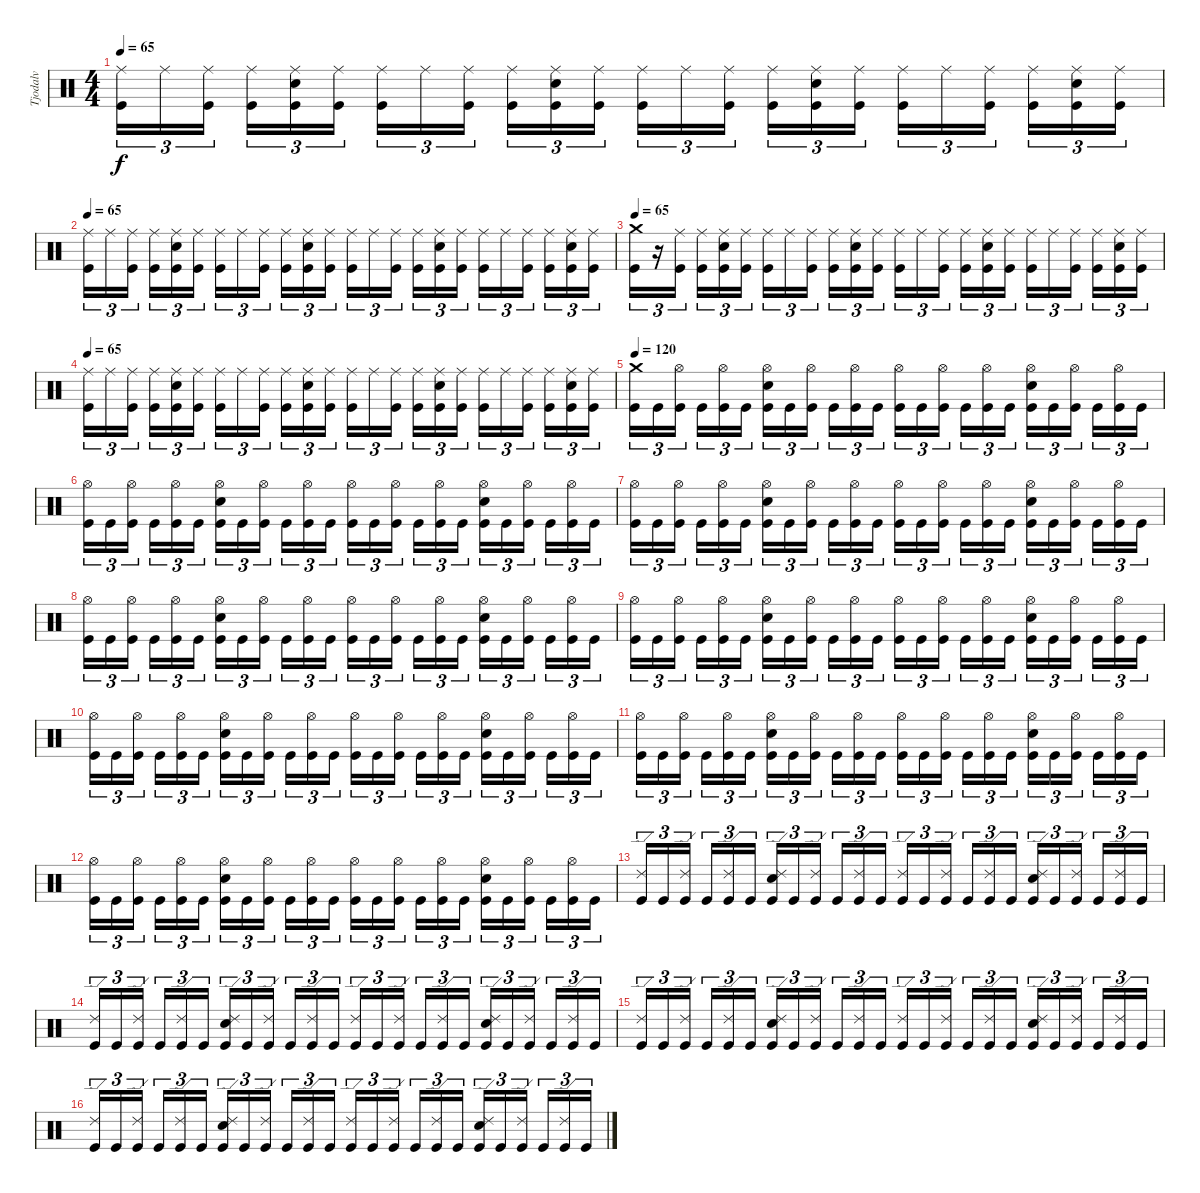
\track ("Tjodalv" "Tjodalv") {instrument percussion}
\staff {score}
\articulation defaults
\ts (4 4)
\tempo 65
\clef neutral
\ks c
("Ride (middle)" "Kick (hit)").16{tu (3 2) dy f} "Ride (middle)".16{tu (3 2)} ("Ride (middle)" "Kick (hit)").16{tu (3 2)} ("Ride (middle)" "Kick (hit)").16{tu (3 2)} ("Ride (middle)" "Snare (hit) 2" "Kick (hit)").16{tu (3 2)} ("Ride (middle)" "Kick (hit)").16{tu (3 2)} ("Ride (middle)" "Kick (hit)").16{tu (3 2)} "Ride (middle)".16{tu (3 2)} ("Ride (middle)" "Kick (hit)").16{tu (3 2)} ("Ride (middle)" "Kick (hit)").16{tu (3 2)} ("Ride (middle)" "Snare (hit) 2" "Kick (hit)").16{tu (3 2)} ("Ride (middle)" "Kick (hit)").16{tu (3 2)} ("Ride (middle)" "Kick (hit)").16{tu (3 2)} "Ride (middle)".16{tu (3 2)} ("Ride (middle)" "Kick (hit)").16{tu (3 2)} ("Ride (middle)" "Kick (hit)").16{tu (3 2)} ("Ride (middle)" "Snare (hit) 2" "Kick (hit)").16{tu (3 2)} ("Ride (middle)" "Kick (hit)").16{tu (3 2)} ("Ride (middle)" "Kick (hit)").16{tu (3 2)} "Ride (middle)".16{tu (3 2)} ("Ride (middle)" "Kick (hit)").16{tu (3 2)} ("Ride (middle)" "Kick (hit)").16{tu (3 2)} ("Ride (middle)" "Snare (hit) 2" "Kick (hit)").16{tu (3 2)} ("Ride (middle)" "Kick (hit)").16{tu (3 2)} |
\tempo 65
("Ride (middle)" "Kick (hit)").16{tu (3 2)} "Ride (middle)".16{tu (3 2)} ("Ride (middle)" "Kick (hit)").16{tu (3 2)} ("Ride (middle)" "Kick (hit)").16{tu (3 2)} ("Ride (middle)" "Snare (hit) 2" "Kick (hit)").16{tu (3 2)} ("Ride (middle)" "Kick (hit)").16{tu (3 2)} ("Ride (middle)" "Kick (hit)").16{tu (3 2)} "Ride (middle)".16{tu (3 2)} ("Ride (middle)" "Kick (hit)").16{tu (3 2)} ("Ride (middle)" "Kick (hit)").16{tu (3 2)} ("Ride (middle)" "Snare (hit) 2" "Kick (hit)").16{tu (3 2)} ("Ride (middle)" "Kick (hit)").16{tu (3 2)} ("Ride (middle)" "Kick (hit)").16{tu (3 2)} "Ride (middle)".16{tu (3 2)} ("Ride (middle)" "Kick (hit)").16{tu (3 2)} ("Ride (middle)" "Kick (hit)").16{tu (3 2)} ("Ride (middle)" "Snare (hit) 2" "Kick (hit)").16{tu (3 2)} ("Ride (middle)" "Kick (hit)").16{tu (3 2)} ("Ride (middle)" "Kick (hit)").16{tu (3 2)} "Ride (middle)".16{tu (3 2)} ("Ride (middle)" "Kick (hit)").16{tu (3 2)} ("Ride (middle)" "Kick (hit)").16{tu (3 2)} ("Ride (middle)" "Snare (hit) 2" "Kick (hit)").16{tu (3 2)} ("Ride (middle)" "Kick (hit)").16{tu (3 2)} |
\tempo 65
("Crash medium (hit)" "Kick (hit)").16{tu (3 2)} r.16{tu (3 2)} ("Ride (middle)" "Kick (hit)").16{tu (3 2)} ("Ride (middle)" "Kick (hit)").16{tu (3 2)} ("Ride (middle)" "Snare (hit) 2" "Kick (hit)").16{tu (3 2)} ("Ride (middle)" "Kick (hit)").16{tu (3 2)} ("Ride (middle)" "Kick (hit)").16{tu (3 2)} "Ride (middle)".16{tu (3 2)} ("Ride (middle)" "Kick (hit)").16{tu (3 2)} ("Ride (middle)" "Kick (hit)").16{tu (3 2)} ("Ride (middle)" "Snare (hit) 2" "Kick (hit)").16{tu (3 2)} ("Ride (middle)" "Kick (hit)").16{tu (3 2)} ("Ride (middle)" "Kick (hit)").16{tu (3 2)} "Ride (middle)".16{tu (3 2)} ("Ride (middle)" "Kick (hit)").16{tu (3 2)} ("Ride (middle)" "Kick (hit)").16{tu (3 2)} ("Ride (middle)" "Snare (hit) 2" "Kick (hit)").16{tu (3 2)} ("Ride (middle)" "Kick (hit)").16{tu (3 2)} ("Ride (middle)" "Kick (hit)").16{tu (3 2)} "Ride (middle)".16{tu (3 2)} ("Ride (middle)" "Kick (hit)").16{tu (3 2)} ("Ride (middle)" "Kick (hit)").16{tu (3 2)} ("Ride (middle)" "Snare (hit) 2" "Kick (hit)").16{tu (3 2)} ("Ride (middle)" "Kick (hit)").16{tu (3 2)} |
\tempo 65
("Ride (middle)" "Kick (hit)").16{tu (3 2)} "Ride (middle)".16{tu (3 2)} ("Ride (middle)" "Kick (hit)").16{tu (3 2)} ("Ride (middle)" "Kick (hit)").16{tu (3 2)} ("Ride (middle)" "Snare (hit) 2" "Kick (hit)").16{tu (3 2)} ("Ride (middle)" "Kick (hit)").16{tu (3 2)} ("Ride (middle)" "Kick (hit)").16{tu (3 2)} "Ride (middle)".16{tu (3 2)} ("Ride (middle)" "Kick (hit)").16{tu (3 2)} ("Ride (middle)" "Kick (hit)").16{tu (3 2)} ("Ride (middle)" "Snare (hit) 2" "Kick (hit)").16{tu (3 2)} ("Ride (middle)" "Kick (hit)").16{tu (3 2)} ("Ride (middle)" "Kick (hit)").16{tu (3 2)} "Ride (middle)".16{tu (3 2)} ("Ride (middle)" "Kick (hit)").16{tu (3 2)} ("Ride (middle)" "Kick (hit)").16{tu (3 2)} ("Ride (middle)" "Snare (hit) 2" "Kick (hit)").16{tu (3 2)} ("Ride (middle)" "Kick (hit)").16{tu (3 2)} ("Ride (middle)" "Kick (hit)").16{tu (3 2)} "Ride (middle)".16{tu (3 2)} ("Ride (middle)" "Kick (hit)").16{tu (3 2)} ("Ride (middle)" "Kick (hit)").16{tu (3 2)} ("Ride (middle)" "Snare (hit) 2" "Kick (hit)").16{tu (3 2)} ("Ride (middle)" "Kick (hit)").16{tu (3 2)} |
\tempo 120
("Crash medium (hit)" "Kick (hit)").16{tu (3 2)} "Kick (hit)".16{tu (3 2)} ("Hi-Hat (open)" "Kick (hit)").16{tu (3 2)} "Kick (hit)".16{tu (3 2)} ("Hi-Hat (open)" "Kick (hit)").16{tu (3 2)} "Kick (hit)".16{tu (3 2)} ("Hi-Hat (open)" "Snare (hit) 2" "Kick (hit)").16{tu (3 2)} "Kick (hit)".16{tu (3 2)} ("Hi-Hat (open)" "Kick (hit)").16{tu (3 2)} "Kick (hit)".16{tu (3 2)} ("Hi-Hat (open)" "Kick (hit)").16{tu (3 2)} "Kick (hit)".16{tu (3 2)} ("Hi-Hat (open)" "Kick (hit)").16{tu (3 2)} "Kick (hit)".16{tu (3 2)} ("Hi-Hat (open)" "Kick (hit)").16{tu (3 2)} "Kick (hit)".16{tu (3 2)} ("Hi-Hat (open)" "Kick (hit)").16{tu (3 2)} "Kick (hit)".16{tu (3 2)} ("Hi-Hat (open)" "Snare (hit) 2" "Kick (hit)").16{tu (3 2)} "Kick (hit)".16{tu (3 2)} ("Hi-Hat (open)" "Kick (hit)").16{tu (3 2)} "Kick (hit)".16{tu (3 2)} ("Hi-Hat (open)" "Kick (hit)").16{tu (3 2)} "Kick (hit)".16{tu (3 2)} |
("Hi-Hat (open)" "Kick (hit)").16{tu (3 2)} "Kick (hit)".16{tu (3 2)} ("Hi-Hat (open)" "Kick (hit)").16{tu (3 2)} "Kick (hit)".16{tu (3 2)} ("Hi-Hat (open)" "Kick (hit)").16{tu (3 2)} "Kick (hit)".16{tu (3 2)} ("Hi-Hat (open)" "Snare (hit) 2" "Kick (hit)").16{tu (3 2)} "Kick (hit)".16{tu (3 2)} ("Hi-Hat (open)" "Kick (hit)").16{tu (3 2)} "Kick (hit)".16{tu (3 2)} ("Hi-Hat (open)" "Kick (hit)").16{tu (3 2)} "Kick (hit)".16{tu (3 2)} ("Hi-Hat (open)" "Kick (hit)").16{tu (3 2)} "Kick (hit)".16{tu (3 2)} ("Hi-Hat (open)" "Kick (hit)").16{tu (3 2)} "Kick (hit)".16{tu (3 2)} ("Hi-Hat (open)" "Kick (hit)").16{tu (3 2)} "Kick (hit)".16{tu (3 2)} ("Hi-Hat (open)" "Snare (hit) 2" "Kick (hit)").16{tu (3 2)} "Kick (hit)".16{tu (3 2)} ("Hi-Hat (open)" "Kick (hit)").16{tu (3 2)} "Kick (hit)".16{tu (3 2)} ("Hi-Hat (open)" "Kick (hit)").16{tu (3 2)} "Kick (hit)".16{tu (3 2)} |
("Hi-Hat (open)" "Kick (hit)").16{tu (3 2)} "Kick (hit)".16{tu (3 2)} ("Hi-Hat (open)" "Kick (hit)").16{tu (3 2)} "Kick (hit)".16{tu (3 2)} ("Hi-Hat (open)" "Kick (hit)").16{tu (3 2)} "Kick (hit)".16{tu (3 2)} ("Hi-Hat (open)" "Snare (hit) 2" "Kick (hit)").16{tu (3 2)} "Kick (hit)".16{tu (3 2)} ("Hi-Hat (open)" "Kick (hit)").16{tu (3 2)} "Kick (hit)".16{tu (3 2)} ("Hi-Hat (open)" "Kick (hit)").16{tu (3 2)} "Kick (hit)".16{tu (3 2)} ("Hi-Hat (open)" "Kick (hit)").16{tu (3 2)} "Kick (hit)".16{tu (3 2)} ("Hi-Hat (open)" "Kick (hit)").16{tu (3 2)} "Kick (hit)".16{tu (3 2)} ("Hi-Hat (open)" "Kick (hit)").16{tu (3 2)} "Kick (hit)".16{tu (3 2)} ("Hi-Hat (open)" "Snare (hit) 2" "Kick (hit)").16{tu (3 2)} "Kick (hit)".16{tu (3 2)} ("Hi-Hat (open)" "Kick (hit)").16{tu (3 2)} "Kick (hit)".16{tu (3 2)} ("Hi-Hat (open)" "Kick (hit)").16{tu (3 2)} "Kick (hit)".16{tu (3 2)} |
("Hi-Hat (open)" "Kick (hit)").16{tu (3 2)} "Kick (hit)".16{tu (3 2)} ("Hi-Hat (open)" "Kick (hit)").16{tu (3 2)} "Kick (hit)".16{tu (3 2)} ("Hi-Hat (open)" "Kick (hit)").16{tu (3 2)} "Kick (hit)".16{tu (3 2)} ("Hi-Hat (open)" "Snare (hit) 2" "Kick (hit)").16{tu (3 2)} "Kick (hit)".16{tu (3 2)} ("Hi-Hat (open)" "Kick (hit)").16{tu (3 2)} "Kick (hit)".16{tu (3 2)} ("Hi-Hat (open)" "Kick (hit)").16{tu (3 2)} "Kick (hit)".16{tu (3 2)} ("Hi-Hat (open)" "Kick (hit)").16{tu (3 2)} "Kick (hit)".16{tu (3 2)} ("Hi-Hat (open)" "Kick (hit)").16{tu (3 2)} "Kick (hit)".16{tu (3 2)} ("Hi-Hat (open)" "Kick (hit)").16{tu (3 2)} "Kick (hit)".16{tu (3 2)} ("Hi-Hat (open)" "Snare (hit) 2" "Kick (hit)").16{tu (3 2)} "Kick (hit)".16{tu (3 2)} ("Hi-Hat (open)" "Kick (hit)").16{tu (3 2)} "Kick (hit)".16{tu (3 2)} ("Hi-Hat (open)" "Kick (hit)").16{tu (3 2)} "Kick (hit)".16{tu (3 2)} |
("Hi-Hat (open)" "Kick (hit)").16{tu (3 2)} "Kick (hit)".16{tu (3 2)} ("Hi-Hat (open)" "Kick (hit)").16{tu (3 2)} "Kick (hit)".16{tu (3 2)} ("Hi-Hat (open)" "Kick (hit)").16{tu (3 2)} "Kick (hit)".16{tu (3 2)} ("Hi-Hat (open)" "Snare (hit) 2" "Kick (hit)").16{tu (3 2)} "Kick (hit)".16{tu (3 2)} ("Hi-Hat (open)" "Kick (hit)").16{tu (3 2)} "Kick (hit)".16{tu (3 2)} ("Hi-Hat (open)" "Kick (hit)").16{tu (3 2)} "Kick (hit)".16{tu (3 2)} ("Hi-Hat (open)" "Kick (hit)").16{tu (3 2)} "Kick (hit)".16{tu (3 2)} ("Hi-Hat (open)" "Kick (hit)").16{tu (3 2)} "Kick (hit)".16{tu (3 2)} ("Hi-Hat (open)" "Kick (hit)").16{tu (3 2)} "Kick (hit)".16{tu (3 2)} ("Hi-Hat (open)" "Snare (hit) 2" "Kick (hit)").16{tu (3 2)} "Kick (hit)".16{tu (3 2)} ("Hi-Hat (open)" "Kick (hit)").16{tu (3 2)} "Kick (hit)".16{tu (3 2)} ("Hi-Hat (open)" "Kick (hit)").16{tu (3 2)} "Kick (hit)".16{tu (3 2)} |
("Hi-Hat (open)" "Kick (hit)").16{tu (3 2)} "Kick (hit)".16{tu (3 2)} ("Hi-Hat (open)" "Kick (hit)").16{tu (3 2)} "Kick (hit)".16{tu (3 2)} ("Hi-Hat (open)" "Kick (hit)").16{tu (3 2)} "Kick (hit)".16{tu (3 2)} ("Hi-Hat (open)" "Snare (hit) 2" "Kick (hit)").16{tu (3 2)} "Kick (hit)".16{tu (3 2)} ("Hi-Hat (open)" "Kick (hit)").16{tu (3 2)} "Kick (hit)".16{tu (3 2)} ("Hi-Hat (open)" "Kick (hit)").16{tu (3 2)} "Kick (hit)".16{tu (3 2)} ("Hi-Hat (open)" "Kick (hit)").16{tu (3 2)} "Kick (hit)".16{tu (3 2)} ("Hi-Hat (open)" "Kick (hit)").16{tu (3 2)} "Kick (hit)".16{tu (3 2)} ("Hi-Hat (open)" "Kick (hit)").16{tu (3 2)} "Kick (hit)".16{tu (3 2)} ("Hi-Hat (open)" "Snare (hit) 2" "Kick (hit)").16{tu (3 2)} "Kick (hit)".16{tu (3 2)} ("Hi-Hat (open)" "Kick (hit)").16{tu (3 2)} "Kick (hit)".16{tu (3 2)} ("Hi-Hat (open)" "Kick (hit)").16{tu (3 2)} "Kick (hit)".16{tu (3 2)} |
("Hi-Hat (open)" "Kick (hit)").16{tu (3 2)} "Kick (hit)".16{tu (3 2)} ("Hi-Hat (open)" "Kick (hit)").16{tu (3 2)} "Kick (hit)".16{tu (3 2)} ("Hi-Hat (open)" "Kick (hit)").16{tu (3 2)} "Kick (hit)".16{tu (3 2)} ("Hi-Hat (open)" "Snare (hit) 2" "Kick (hit)").16{tu (3 2)} "Kick (hit)".16{tu (3 2)} ("Hi-Hat (open)" "Kick (hit)").16{tu (3 2)} "Kick (hit)".16{tu (3 2)} ("Hi-Hat (open)" "Kick (hit)").16{tu (3 2)} "Kick (hit)".16{tu (3 2)} ("Hi-Hat (open)" "Kick (hit)").16{tu (3 2)} "Kick (hit)".16{tu (3 2)} ("Hi-Hat (open)" "Kick (hit)").16{tu (3 2)} "Kick (hit)".16{tu (3 2)} ("Hi-Hat (open)" "Kick (hit)").16{tu (3 2)} "Kick (hit)".16{tu (3 2)} ("Hi-Hat (open)" "Snare (hit) 2" "Kick (hit)").16{tu (3 2)} "Kick (hit)".16{tu (3 2)} ("Hi-Hat (open)" "Kick (hit)").16{tu (3 2)} "Kick (hit)".16{tu (3 2)} ("Hi-Hat (open)" "Kick (hit)").16{tu (3 2)} "Kick (hit)".16{tu (3 2)} |
("Hi-Hat (open)" "Kick (hit)").16{tu (3 2)} "Kick (hit)".16{tu (3 2)} ("Hi-Hat (open)" "Kick (hit)").16{tu (3 2)} "Kick (hit)".16{tu (3 2)} ("Hi-Hat (open)" "Kick (hit)").16{tu (3 2)} "Kick (hit)".16{tu (3 2)} ("Hi-Hat (open)" "Snare (hit) 2" "Kick (hit)").16{tu (3 2)} "Kick (hit)".16{tu (3 2)} ("Hi-Hat (open)" "Kick (hit)").16{tu (3 2)} "Kick (hit)".16{tu (3 2)} ("Hi-Hat (open)" "Kick (hit)").16{tu (3 2)} "Kick (hit)".16{tu (3 2)} ("Hi-Hat (open)" "Kick (hit)").16{tu (3 2)} "Kick (hit)".16{tu (3 2)} ("Hi-Hat (open)" "Kick (hit)").16{tu (3 2)} "Kick (hit)".16{tu (3 2)} ("Hi-Hat (open)" "Kick (hit)").16{tu (3 2)} "Kick (hit)".16{tu (3 2)} ("Hi-Hat (open)" "Snare (hit) 2" "Kick (hit)").16{tu (3 2)} "Kick (hit)".16{tu (3 2)} ("Hi-Hat (open)" "Kick (hit)").16{tu (3 2)} "Kick (hit)".16{tu (3 2)} ("Hi-Hat (open)" "Kick (hit)").16{tu (3 2)} "Kick (hit)".16{tu (3 2)} |
("Ride (edge) 2" "Kick (hit)").16{tu (3 2)} "Kick (hit)".16{tu (3 2)} ("Ride (edge) 2" "Kick (hit)").16{tu (3 2)} "Kick (hit)".16{tu (3 2)} ("Ride (edge) 2" "Kick (hit)").16{tu (3 2)} "Kick (hit)".16{tu (3 2)} ("Ride (edge) 2" "Snare (hit) 2" "Kick (hit)").16{tu (3 2)} "Kick (hit)".16{tu (3 2)} ("Ride (edge) 2" "Kick (hit)").16{tu (3 2)} "Kick (hit)".16{tu (3 2)} ("Ride (edge) 2" "Kick (hit)").16{tu (3 2)} "Kick (hit)".16{tu (3 2)} ("Ride (edge) 2" "Kick (hit)").16{tu (3 2)} "Kick (hit)".16{tu (3 2)} ("Ride (edge) 2" "Kick (hit)").16{tu (3 2)} "Kick (hit)".16{tu (3 2)} ("Ride (edge) 2" "Kick (hit)").16{tu (3 2)} "Kick (hit)".16{tu (3 2)} ("Ride (edge) 2" "Snare (hit) 2" "Kick (hit)").16{tu (3 2)} "Kick (hit)".16{tu (3 2)} ("Ride (edge) 2" "Kick (hit)").16{tu (3 2)} "Kick (hit)".16{tu (3 2)} ("Ride (edge) 2" "Kick (hit)").16{tu (3 2)} "Kick (hit)".16{tu (3 2)} |
("Ride (edge) 2" "Kick (hit)").16{tu (3 2)} "Kick (hit)".16{tu (3 2)} ("Ride (edge) 2" "Kick (hit)").16{tu (3 2)} "Kick (hit)".16{tu (3 2)} ("Ride (edge) 2" "Kick (hit)").16{tu (3 2)} "Kick (hit)".16{tu (3 2)} ("Ride (edge) 2" "Snare (hit) 2" "Kick (hit)").16{tu (3 2)} "Kick (hit)".16{tu (3 2)} ("Ride (edge) 2" "Kick (hit)").16{tu (3 2)} "Kick (hit)".16{tu (3 2)} ("Ride (edge) 2" "Kick (hit)").16{tu (3 2)} "Kick (hit)".16{tu (3 2)} ("Ride (edge) 2" "Kick (hit)").16{tu (3 2)} "Kick (hit)".16{tu (3 2)} ("Ride (edge) 2" "Kick (hit)").16{tu (3 2)} "Kick (hit)".16{tu (3 2)} ("Ride (edge) 2" "Kick (hit)").16{tu (3 2)} "Kick (hit)".16{tu (3 2)} ("Ride (edge) 2" "Snare (hit) 2" "Kick (hit)").16{tu (3 2)} "Kick (hit)".16{tu (3 2)} ("Ride (edge) 2" "Kick (hit)").16{tu (3 2)} "Kick (hit)".16{tu (3 2)} ("Ride (edge) 2" "Kick (hit)").16{tu (3 2)} "Kick (hit)".16{tu (3 2)} |
("Ride (edge) 2" "Kick (hit)").16{tu (3 2)} "Kick (hit)".16{tu (3 2)} ("Ride (edge) 2" "Kick (hit)").16{tu (3 2)} "Kick (hit)".16{tu (3 2)} ("Ride (edge) 2" "Kick (hit)").16{tu (3 2)} "Kick (hit)".16{tu (3 2)} ("Ride (edge) 2" "Snare (hit) 2" "Kick (hit)").16{tu (3 2)} "Kick (hit)".16{tu (3 2)} ("Ride (edge) 2" "Kick (hit)").16{tu (3 2)} "Kick (hit)".16{tu (3 2)} ("Ride (edge) 2" "Kick (hit)").16{tu (3 2)} "Kick (hit)".16{tu (3 2)} ("Ride (edge) 2" "Kick (hit)").16{tu (3 2)} "Kick (hit)".16{tu (3 2)} ("Ride (edge) 2" "Kick (hit)").16{tu (3 2)} "Kick (hit)".16{tu (3 2)} ("Ride (edge) 2" "Kick (hit)").16{tu (3 2)} "Kick (hit)".16{tu (3 2)} ("Ride (edge) 2" "Snare (hit) 2" "Kick (hit)").16{tu (3 2)} "Kick (hit)".16{tu (3 2)} ("Ride (edge) 2" "Kick (hit)").16{tu (3 2)} "Kick (hit)".16{tu (3 2)} ("Ride (edge) 2" "Kick (hit)").16{tu (3 2)} "Kick (hit)".16{tu (3 2)} |
("Ride (edge) 2" "Kick (hit)").16{tu (3 2)} "Kick (hit)".16{tu (3 2)} ("Ride (edge) 2" "Kick (hit)").16{tu (3 2)} "Kick (hit)".16{tu (3 2)} ("Ride (edge) 2" "Kick (hit)").16{tu (3 2)} "Kick (hit)".16{tu (3 2)} ("Ride (edge) 2" "Snare (hit) 2" "Kick (hit)").16{tu (3 2)} "Kick (hit)".16{tu (3 2)} ("Ride (edge) 2" "Kick (hit)").16{tu (3 2)} "Kick (hit)".16{tu (3 2)} ("Ride (edge) 2" "Kick (hit)").16{tu (3 2)} "Kick (hit)".16{tu (3 2)} ("Ride (edge) 2" "Kick (hit)").16{tu (3 2)} "Kick (hit)".16{tu (3 2)} ("Ride (edge) 2" "Kick (hit)").16{tu (3 2)} "Kick (hit)".16{tu (3 2)} ("Ride (edge) 2" "Kick (hit)").16{tu (3 2)} "Kick (hit)".16{tu (3 2)} ("Ride (edge) 2" "Snare (hit) 2" "Kick (hit)").16{tu (3 2)} "Kick (hit)".16{tu (3 2)} ("Ride (edge) 2" "Kick (hit)").16{tu (3 2)} "Kick (hit)".16{tu (3 2)} ("Ride (edge) 2" "Kick (hit)").16{tu (3 2)} "Kick (hit)".16{tu (3 2)}
